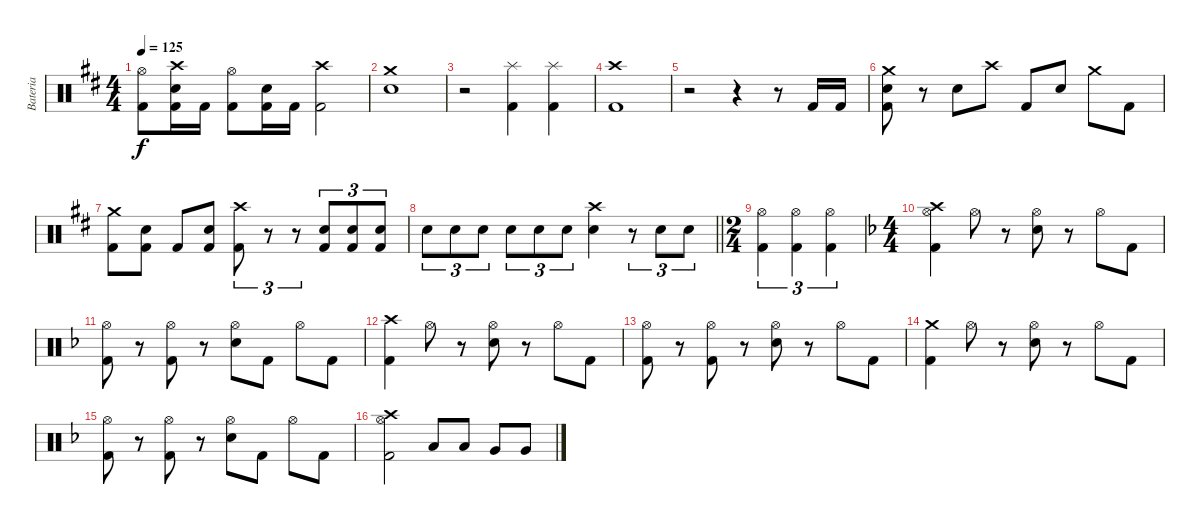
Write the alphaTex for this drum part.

\track ("Bateria" "Bateria") {instrument percussion}
\staff {score}
\articulation defaults
\ts (4 4)
\tempo 125
\clef neutral
\ks d
("Hi-Hat (open)" "Kick (hit) 2").8{dy f} ("Crash high (hit)" "Electric Snare (hit)" "Kick (hit) 2").16 "Kick (hit) 2".16 ("Hi-Hat (open)" "Kick (hit) 2").8 ("Electric Snare (hit)" "Kick (hit) 2").16 "Kick (hit) 2".16 ("Crash high (hit)" "Kick (hit) 2").2 |
("Crash medium (hit)" "Electric Snare (hit)").1 |
r.2 ("Splash (hit)" "Kick (hit) 2").4 ("Splash (hit)" "Kick (hit) 2").4 |
("Crash high (hit)" "Kick (hit) 2").1 |
r.2 r.4 r.8 "Kick (hit) 2".16 "Kick (hit) 2".16 |
("Crash medium (hit)" "Electric Snare (hit)" "Kick (hit) 2").8 r.8 "Electric Snare (hit)".8 "Crash high (hit)".8 "Kick (hit) 2".8 "Electric Snare (hit)".8 "Crash medium (hit)".8 "Kick (hit) 2".8 |
("Crash medium (hit)" "Kick (hit) 2").8 ("Electric Snare (hit)" "Kick (hit) 2").8 "Kick (hit) 2".8 ("Electric Snare (hit)" "Kick (hit) 2").8 ("Crash high (hit)" "Kick (hit) 2").8{tu (3 2)} r.8{tu (3 2)} r.8{tu (3 2)} ("Electric Snare (hit)" "Kick (hit) 2").8{tu (3 2)} ("Electric Snare (hit)" "Kick (hit) 2").8{tu (3 2)} ("Electric Snare (hit)" "Kick (hit) 2").8{tu (3 2)} |
\barLineRight lightlight "Electric Snare (hit)".8{tu (3 2)} "Electric Snare (hit)".8{tu (3 2)} "Electric Snare (hit)".8{tu (3 2)} "Electric Snare (hit)".8{tu (3 2)} "Electric Snare (hit)".8{tu (3 2)} "Electric Snare (hit)".8{tu (3 2)}
("Crash high (hit)" "Electric Snare (hit)").4 r.8{tu (3 2)} "Electric Snare (hit)".8{tu (3 2)} "Electric Snare (hit)".8{tu (3 2)} |
\ts (2 4)
("Hi-Hat (open)" "Kick (hit) 2").4{tu (3 2)} ("Hi-Hat (open)" "Kick (hit) 2").4{tu (3 2)} ("Hi-Hat (open)" "Kick (hit) 2").4{tu (3 2)} |
\ts (4 4)
\ks f
("Hi-Hat (open)" "Crash high (hit)" "Kick (hit) 2").4 "Hi-Hat (open)".8 r.8 ("Hi-Hat (open)" "Electric Snare (hit)").8 r.8 "Hi-Hat (open)".8 "Kick (hit) 2".8 |
("Hi-Hat (open)" "Kick (hit) 2").8 r.8 ("Hi-Hat (open)" "Kick (hit) 2").8 r.8 ("Hi-Hat (open)" "Electric Snare (hit)").8 "Kick (hit) 2".8 "Hi-Hat (open)".8 "Kick (hit) 2".8 |
("Crash high (hit)" "Kick (hit) 2").4 "Hi-Hat (open)".8 r.8 ("Hi-Hat (open)" "Electric Snare (hit)").8 r.8 "Hi-Hat (open)".8 "Kick (hit) 2".8 |
("Hi-Hat (open)" "Kick (hit) 2").8 r.8 ("Hi-Hat (open)" "Kick (hit) 2").8 r.8 ("Hi-Hat (open)" "Electric Snare (hit)").8 r.8 "Hi-Hat (open)".8 "Kick (hit) 2".8 |
("Crash medium (hit)" "Kick (hit) 2").4 "Hi-Hat (open)".8 r.8 ("Hi-Hat (open)" "Electric Snare (hit)").8 r.8 "Hi-Hat (open)".8 "Kick (hit) 2".8 |
("Hi-Hat (open)" "Kick (hit) 2").8 r.8 ("Hi-Hat (open)" "Kick (hit) 2").8 r.8 ("Hi-Hat (open)" "Electric Snare (hit)").8 "Kick (hit) 2".8 "Hi-Hat (open)".8 "Kick (hit) 2".8 |
("Hi-Hat (open)" "Crash high (hit)" "Kick (hit) 2").2 "Low Tom (hit)".8 "Low Tom (hit)".8 "Very Low Tom (hit)".8 "Very Low Tom (hit)".8
